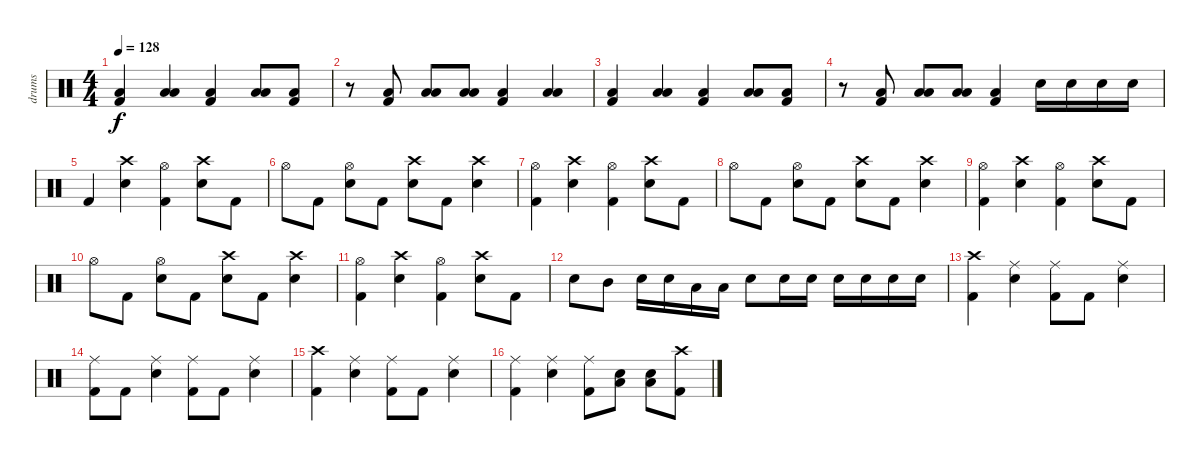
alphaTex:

\track ("drums" "drums") {instrument percussion}
\staff {score}
\articulation defaults
\ts (4 4)
\tempo 128
\clef neutral
\ks c
("Low Floor Tom (hit)" "Kick (hit) 2").4{dy f} ("Low Tom (hit)" "Low Floor Tom (hit)").4 ("Low Floor Tom (hit)" "Kick (hit) 2").4 ("Low Tom (hit)" "Low Floor Tom (hit)").8 ("Low Floor Tom (hit)" "Kick (hit) 2").8 |
r.8 ("Low Floor Tom (hit)" "Kick (hit) 2").8 ("Low Tom (hit)" "Low Floor Tom (hit)").8 ("Low Tom (hit)" "Low Floor Tom (hit)").8 ("Low Floor Tom (hit)" "Kick (hit) 2").4 ("Low Tom (hit)" "Low Floor Tom (hit)").4 |
("Low Floor Tom (hit)" "Kick (hit) 2").4 ("Low Tom (hit)" "Low Floor Tom (hit)").4 ("Low Floor Tom (hit)" "Kick (hit) 2").4 ("Low Tom (hit)" "Low Floor Tom (hit)").8 ("Low Floor Tom (hit)" "Kick (hit) 2").8 |
r.8 ("Low Floor Tom (hit)" "Kick (hit) 2").8 ("Low Tom (hit)" "Low Floor Tom (hit)").8 ("Low Tom (hit)" "Low Floor Tom (hit)").8 ("Low Floor Tom (hit)" "Kick (hit) 2").4 "Electric Snare (hit)".16 "Electric Snare (hit)".16 "Electric Snare (hit)".16 "Electric Snare (hit)".16 |
"Kick (hit) 2".4 ("Crash high (hit)" "Electric Snare (hit)").4 ("Hi-Hat (open)" "Kick (hit) 2").4 ("Crash high (hit)" "Electric Snare (hit)").8 "Kick (hit) 2".8 |
"Hi-Hat (open)".8 "Kick (hit) 2".8 ("Hi-Hat (open)" "Electric Snare (hit)").8 "Kick (hit) 2".8 ("Crash high (hit)" "Electric Snare (hit)").8 "Kick (hit) 2".8 ("Crash high (hit)" "Electric Snare (hit)").4 |
("Hi-Hat (open)" "Kick (hit) 2").4 ("Crash high (hit)" "Electric Snare (hit)").4 ("Hi-Hat (open)" "Kick (hit) 2").4 ("Crash high (hit)" "Electric Snare (hit)").8 "Kick (hit) 2".8 |
"Hi-Hat (open)".8 "Kick (hit) 2".8 ("Hi-Hat (open)" "Electric Snare (hit)").8 "Kick (hit) 2".8 ("Crash high (hit)" "Electric Snare (hit)").8 "Kick (hit) 2".8 ("Crash high (hit)" "Electric Snare (hit)").4 |
("Hi-Hat (open)" "Kick (hit) 2").4 ("Crash high (hit)" "Electric Snare (hit)").4 ("Hi-Hat (open)" "Kick (hit) 2").4 ("Crash high (hit)" "Electric Snare (hit)").8 "Kick (hit) 2".8 |
"Hi-Hat (open)".8 "Kick (hit) 2".8 ("Hi-Hat (open)" "Electric Snare (hit)").8 "Kick (hit) 2".8 ("Crash high (hit)" "Electric Snare (hit)").8 "Kick (hit) 2".8 ("Crash high (hit)" "Electric Snare (hit)").4 |
("Hi-Hat (open)" "Kick (hit) 2").4 ("Crash high (hit)" "Electric Snare (hit)").4 ("Hi-Hat (open)" "Kick (hit) 2").4 ("Crash high (hit)" "Electric Snare (hit)").8 "Kick (hit) 2".8 |
"Electric Snare (hit)".8 "Mid Tom (hit)".8 "Electric Snare (hit)".16 "Electric Snare (hit)".16 "Low Tom (hit)".16 "Low Tom (hit)".16 "Electric Snare (hit)".8 "Electric Snare (hit)".16 "Electric Snare (hit)".16 "Electric Snare (hit)".16 "Electric Snare (hit)".16 "Electric Snare (hit)".16 "Electric Snare (hit)".16 |
("Crash high (hit)" "Kick (hit) 2").4 ("Ride (middle)" "Electric Snare (hit)").4 ("Ride (middle)" "Kick (hit) 2").8 "Kick (hit) 2".8 ("Ride (middle)" "Electric Snare (hit)").4 |
("Ride (middle)" "Kick (hit) 2").8 "Kick (hit) 2".8 ("Ride (middle)" "Electric Snare (hit)").4 ("Ride (middle)" "Kick (hit) 2").8 "Kick (hit) 2".8 ("Ride (middle)" "Electric Snare (hit)").4 |
("Crash high (hit)" "Kick (hit) 2").4 ("Ride (middle)" "Electric Snare (hit)").4 ("Ride (middle)" "Kick (hit) 2").8 "Kick (hit) 2".8 ("Ride (middle)" "Electric Snare (hit)").4 |
("Ride (middle)" "Kick (hit) 2").4 ("Ride (middle)" "Electric Snare (hit)").4 ("Ride (middle)" "Kick (hit) 2").8 ("Electric Snare (hit)" "Low Floor Tom (hit)").8 ("Electric Snare (hit)" "Low Floor Tom (hit)").8 ("Crash high (hit)" "Kick (hit) 2").8
